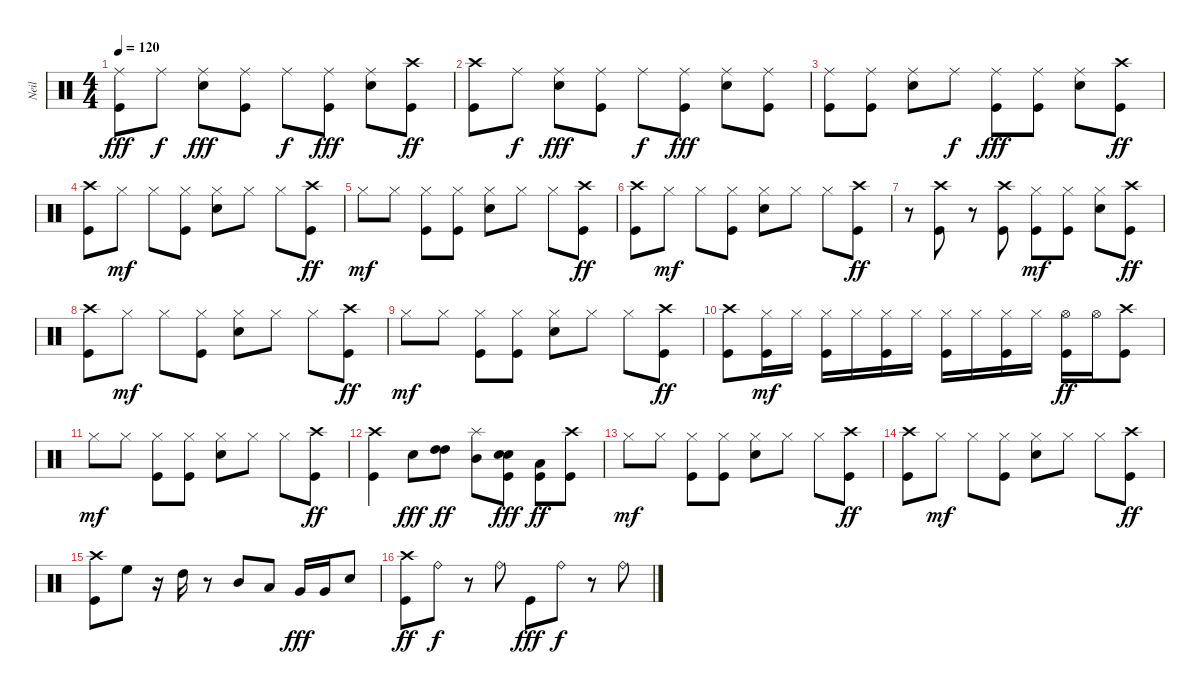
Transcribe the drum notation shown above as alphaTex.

\track ("Neil" "Neil") {instrument percussion}
\staff {score}
\articulation defaults
\ts (4 4)
\tempo 120
\clef neutral
\ks c
("Kick (hit)" "Ride (middle)").8{dy fff} "Ride (middle)".8{dy f} ("Snare (hit) 2" "Ride (middle)").8{dy fff} ("Kick (hit)" "Ride (middle)").8 "Ride (middle)".8{dy f} ("Kick (hit)" "Ride (middle)").8{dy fff} ("Snare (hit) 2" "Ride (middle)").8 ("Kick (hit)" "Crash high (hit)").8{dy ff} |
("Kick (hit)" "Crash high (hit)").8 "Ride (middle)".8{dy f} ("Snare (hit) 2" "Ride (middle)").8{dy fff} ("Kick (hit)" "Ride (middle)").8 "Ride (middle)".8{dy f} ("Kick (hit)" "Ride (middle)").8{dy fff} ("Snare (hit) 2" "Ride (middle)").8 ("Kick (hit)" "Ride (middle)").8 |
("Kick (hit)" "Ride (middle)").8 ("Kick (hit)" "Ride (middle)").8 ("Snare (hit) 2" "Ride (middle)").8 "Ride (middle)".8{dy f} ("Kick (hit)" "Ride (middle)").8{dy fff} ("Kick (hit)" "Ride (middle)").8 ("Snare (hit) 2" "Ride (middle)").8 ("Kick (hit)" "Crash high (hit)").8{dy ff} |
("Kick (hit)" "Crash high (hit)").8 "Hi-Hat (closed)".8{dy mf} "Hi-Hat (closed)".8 ("Kick (hit)" "Hi-Hat (closed)").8 ("Snare (hit) 2" "Hi-Hat (closed)").8 "Hi-Hat (closed)".8 "Hi-Hat (closed)".8 ("Kick (hit)" "Crash high (hit)").8{dy ff} |
"Hi-Hat (closed)".8{dy mf} "Hi-Hat (closed)".8 ("Kick (hit)" "Hi-Hat (closed)").8 ("Kick (hit)" "Hi-Hat (closed)").8 ("Snare (hit) 2" "Hi-Hat (closed)").8 "Hi-Hat (closed)".8 "Hi-Hat (closed)".8 ("Kick (hit)" "Crash high (hit)").8{dy ff} |
("Kick (hit)" "Crash high (hit)").8 "Hi-Hat (closed)".8{dy mf} "Hi-Hat (closed)".8 ("Kick (hit)" "Hi-Hat (closed)").8 ("Snare (hit) 2" "Hi-Hat (closed)").8 "Hi-Hat (closed)".8 "Hi-Hat (closed)".8 ("Kick (hit)" "Crash high (hit)").8{dy ff} |
r.8 ("Kick (hit)" "Crash high (hit)").8 r.8 ("Kick (hit)" "Crash high (hit)").8 ("Kick (hit)" "Hi-Hat (closed)").8{dy mf} ("Kick (hit)" "Hi-Hat (closed)").8 ("Snare (hit) 2" "Hi-Hat (closed)").8 ("Kick (hit)" "Crash high (hit)").8{dy ff} |
("Kick (hit)" "Crash high (hit)").8 "Hi-Hat (closed)".8{dy mf} "Hi-Hat (closed)".8 ("Kick (hit)" "Hi-Hat (closed)").8 ("Snare (hit) 2" "Hi-Hat (closed)").8 "Hi-Hat (closed)".8 "Hi-Hat (closed)".8 ("Kick (hit)" "Crash high (hit)").8{dy ff} |
"Hi-Hat (closed)".8{dy mf} "Hi-Hat (closed)".8 ("Kick (hit)" "Hi-Hat (closed)").8 ("Kick (hit)" "Hi-Hat (closed)").8 ("Snare (hit) 2" "Hi-Hat (closed)").8 "Hi-Hat (closed)".8 "Hi-Hat (closed)".8 ("Kick (hit)" "Crash high (hit)").8{dy ff} |
("Kick (hit)" "Crash high (hit)").8 ("Kick (hit)" "Hi-Hat (closed)").16{dy mf} "Hi-Hat (closed)".16 ("Kick (hit)" "Hi-Hat (closed)").16 "Hi-Hat (closed)".16 ("Kick (hit)" "Hi-Hat (closed)").16 "Hi-Hat (closed)".16 ("Kick (hit)" "Hi-Hat (closed)").16 "Hi-Hat (closed)".16 ("Kick (hit)" "Hi-Hat (closed)").16 "Hi-Hat (closed)".16 ("Kick (hit)" "Hi-Hat (open)").16{dy ff} "Hi-Hat (open)".16 ("Kick (hit)" "Crash high (hit)").8 |
"Hi-Hat (closed)".8{dy mf} "Hi-Hat (closed)".8 ("Kick (hit)" "Hi-Hat (closed)").8 ("Kick (hit)" "Hi-Hat (closed)").8 ("Snare (hit) 2" "Hi-Hat (closed)").8 "Hi-Hat (closed)".8 "Hi-Hat (closed)".8 ("Kick (hit)" "Crash high (hit)").8{dy ff} |
("Kick (hit)" "Crash high (hit)").4 "Snare (hit) 2".8{dy fff} ("High Tom (hit)" "High Tom (hit)").8{dy ff} ("Mid Tom (hit)" "Splash (hit)").8 ("Snare (hit) 2" "Kick (hit)" "Snare (hit) 2").8{dy fff} ("Kick (hit)" "Low Tom (hit)").8{dy ff} ("Kick (hit)" "Crash high (hit)").8 |
"Hi-Hat (closed)".8{dy mf} "Hi-Hat (closed)".8 ("Kick (hit)" "Hi-Hat (closed)").8 ("Kick (hit)" "Hi-Hat (closed)").8 ("Snare (hit) 2" "Hi-Hat (closed)").8 "Hi-Hat (closed)".8 "Hi-Hat (closed)".8 ("Kick (hit)" "Crash high (hit)").8{dy ff} |
("Kick (hit)" "Crash high (hit)").8 "Hi-Hat (closed)".8{dy mf} "Hi-Hat (closed)".8 ("Kick (hit)" "Hi-Hat (closed)").8 ("Snare (hit) 2" "Hi-Hat (closed)").8 "Hi-Hat (closed)".8 "Hi-Hat (closed)".8 ("Kick (hit)" "Crash high (hit)").8{dy ff} |
("Kick (hit)" "Crash high (hit)").8 "High Floor Tom (hit)".8 r.16 "High Tom (hit)".16 r.8 "Mid Tom (hit)".8 "Low Tom (hit)".8 "Very Low Tom (hit)".16{dy fff} "Very Low Tom (hit)".16 "Snare (hit) 2".8 |
("Kick (hit)" "Crash high (hit)").8{dy ff} "Ride (bell)".8{dy f} r.8 "Ride (bell)".8 "Kick (hit)".8{dy fff} "Ride (bell)".8{dy f} r.8 "Ride (bell)".8
